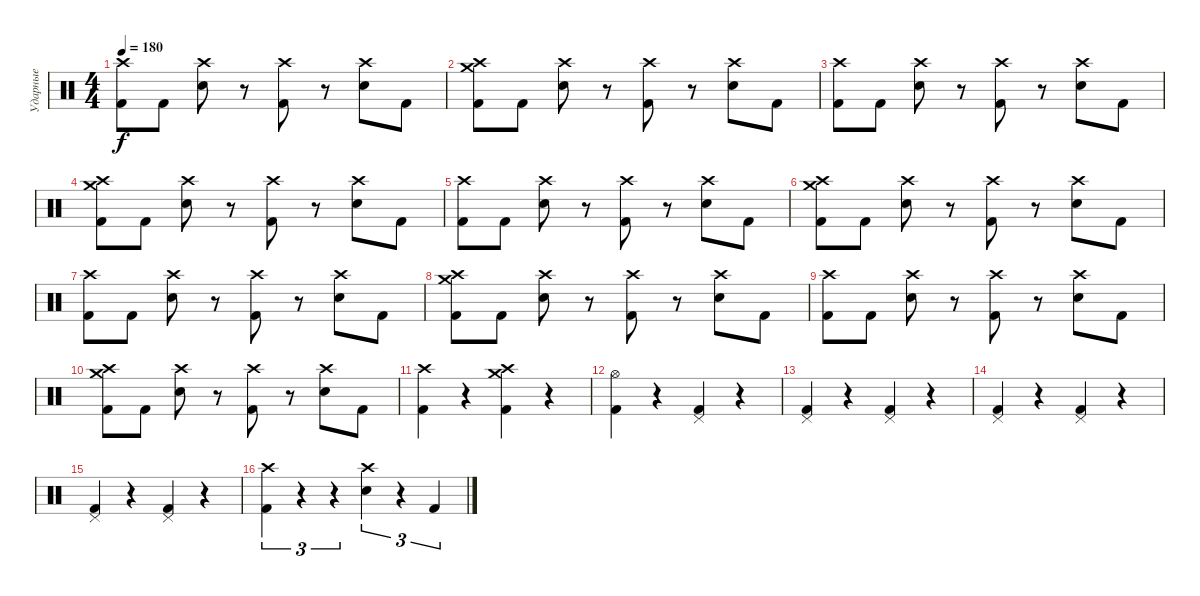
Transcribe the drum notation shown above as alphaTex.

\track ("Ударные" "Ударные") {instrument percussion}
\staff {score}
\articulation defaults
\ts (4 4)
\tempo 180
\clef neutral
\ks c
("Crash high (hit)" "Kick (hit) 2").8{dy f} "Kick (hit) 2".8 ("Crash high (hit)" "Snare (hit) 2").8 r.8 ("Crash high (hit)" "Kick (hit) 2").8 r.8 ("Crash high (hit)" "Snare (hit) 2").8 "Kick (hit) 2".8 |
("Crash medium (hit)" "Crash high (hit)" "Kick (hit) 2").8 "Kick (hit) 2".8 ("Crash high (hit)" "Snare (hit) 2").8 r.8 ("Crash high (hit)" "Kick (hit) 2").8 r.8 ("Crash high (hit)" "Snare (hit) 2").8 "Kick (hit) 2".8 |
("Crash high (hit)" "Kick (hit) 2").8 "Kick (hit) 2".8 ("Crash high (hit)" "Snare (hit) 2").8 r.8 ("Crash high (hit)" "Kick (hit) 2").8 r.8 ("Crash high (hit)" "Snare (hit) 2").8 "Kick (hit) 2".8 |
("Crash medium (hit)" "Crash high (hit)" "Kick (hit) 2").8 "Kick (hit) 2".8 ("Crash high (hit)" "Snare (hit) 2").8 r.8 ("Crash high (hit)" "Kick (hit) 2").8 r.8 ("Crash high (hit)" "Snare (hit) 2").8 "Kick (hit) 2".8 |
("Crash high (hit)" "Kick (hit) 2").8 "Kick (hit) 2".8 ("Crash high (hit)" "Snare (hit) 2").8 r.8 ("Crash high (hit)" "Kick (hit) 2").8 r.8 ("Crash high (hit)" "Snare (hit) 2").8 "Kick (hit) 2".8 |
("Crash medium (hit)" "Crash high (hit)" "Kick (hit) 2").8 "Kick (hit) 2".8 ("Crash high (hit)" "Snare (hit) 2").8 r.8 ("Crash high (hit)" "Kick (hit) 2").8 r.8 ("Crash high (hit)" "Snare (hit) 2").8 "Kick (hit) 2".8 |
("Crash high (hit)" "Kick (hit) 2").8 "Kick (hit) 2".8 ("Crash high (hit)" "Snare (hit) 2").8 r.8 ("Crash high (hit)" "Kick (hit) 2").8 r.8 ("Crash high (hit)" "Snare (hit) 2").8 "Kick (hit) 2".8 |
("Crash medium (hit)" "Crash high (hit)" "Kick (hit) 2").8 "Kick (hit) 2".8 ("Crash high (hit)" "Snare (hit) 2").8 r.8 ("Crash high (hit)" "Kick (hit) 2").8 r.8 ("Crash high (hit)" "Snare (hit) 2").8 "Kick (hit) 2".8 |
("Crash high (hit)" "Kick (hit) 2").8 "Kick (hit) 2".8 ("Crash high (hit)" "Snare (hit) 2").8 r.8 ("Crash high (hit)" "Kick (hit) 2").8 r.8 ("Crash high (hit)" "Snare (hit) 2").8 "Kick (hit) 2".8 |
("Crash medium (hit)" "Crash high (hit)" "Kick (hit) 2").8 "Kick (hit) 2".8 ("Crash high (hit)" "Snare (hit) 2").8 r.8 ("Crash high (hit)" "Kick (hit) 2").8 r.8 ("Crash high (hit)" "Snare (hit) 2").8 "Kick (hit) 2".8 |
("Crash high (hit)" "Kick (hit) 2").4 r.4 ("Crash high (hit)" "Crash medium (hit)" "Kick (hit) 2").4 r.4 |
("Hi-Hat (open)" "Kick (hit) 2").4 r.4 ("Pedal Hi-Hat (hit)" "Kick (hit) 2").4 r.4 |
("Pedal Hi-Hat (hit)" "Kick (hit) 2").4 r.4 ("Pedal Hi-Hat (hit)" "Kick (hit) 2").4 r.4 |
("Pedal Hi-Hat (hit)" "Kick (hit) 2").4 r.4 ("Pedal Hi-Hat (hit)" "Kick (hit) 2").4 r.4 |
("Pedal Hi-Hat (hit)" "Kick (hit) 2").4 r.4 ("Pedal Hi-Hat (hit)" "Kick (hit) 2").4 r.4 |
("Crash high (hit)" "Kick (hit) 2").4{tu (3 2)} r.4{tu (3 2)} r.4{tu (3 2)} ("Crash high (hit)" "Snare (hit) 2").4{tu (3 2)} r.4{tu (3 2)} "Kick (hit) 2".4{tu (3 2)}
